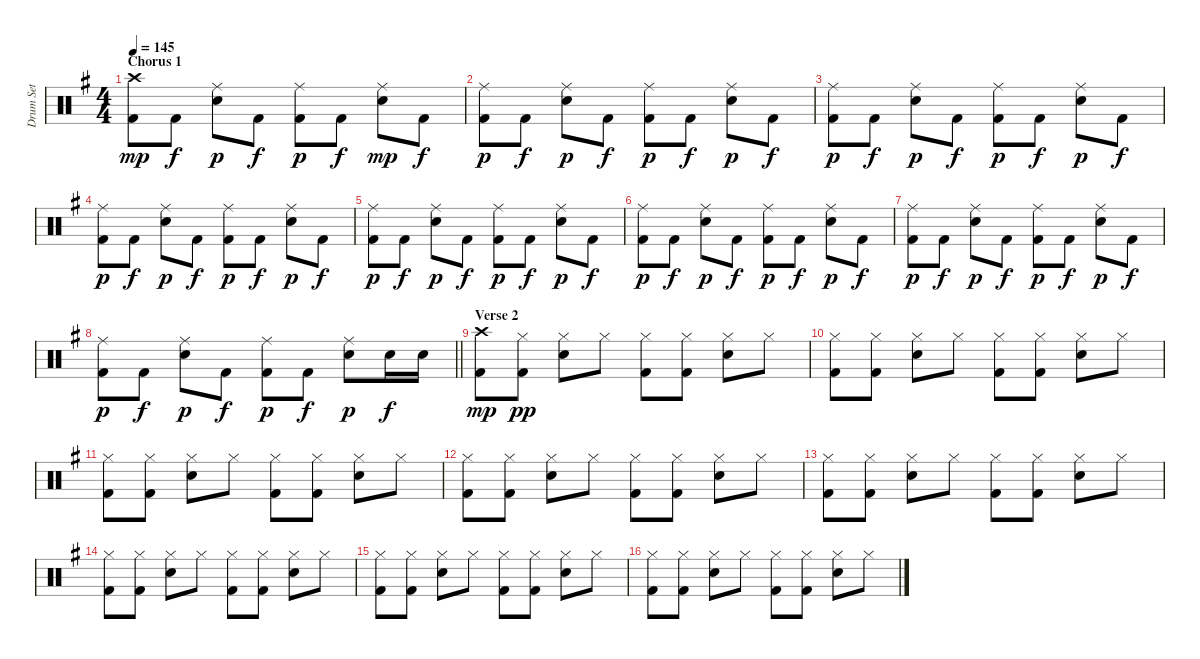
\track ("Drum Set" "Drum Set") {instrument percussion}
\staff {score}
\articulation defaults
\ts (4 4)
\section ("" "Chorus 1")
\tempo 145
\clef neutral
\ks g
("Crash high (hit)" "Kick (hit) 2").8{dy mp} "Kick (hit) 2".8{dy f} ("Electric Snare (hit)" "Ride (middle)").8{dy p} "Kick (hit) 2".8{dy f} ("Kick (hit) 2" "Ride (middle)").8{dy p} "Kick (hit) 2".8{dy f} ("Electric Snare (hit)" "Ride (middle)").8{dy mp} "Kick (hit) 2".8{dy f} |
("Kick (hit) 2" "Ride (middle)").8{dy p} "Kick (hit) 2".8{dy f} ("Electric Snare (hit)" "Ride (middle)").8{dy p} "Kick (hit) 2".8{dy f} ("Kick (hit) 2" "Ride (middle)").8{dy p} "Kick (hit) 2".8{dy f} ("Electric Snare (hit)" "Ride (middle)").8{dy p} "Kick (hit) 2".8{dy f} |
("Kick (hit) 2" "Ride (middle)").8{dy p} "Kick (hit) 2".8{dy f} ("Electric Snare (hit)" "Ride (middle)").8{dy p} "Kick (hit) 2".8{dy f} ("Kick (hit) 2" "Ride (middle)").8{dy p} "Kick (hit) 2".8{dy f} ("Electric Snare (hit)" "Ride (middle)").8{dy p} "Kick (hit) 2".8{dy f} |
("Kick (hit) 2" "Ride (middle)").8{dy p} "Kick (hit) 2".8{dy f} ("Electric Snare (hit)" "Ride (middle)").8{dy p} "Kick (hit) 2".8{dy f} ("Kick (hit) 2" "Ride (middle)").8{dy p} "Kick (hit) 2".8{dy f} ("Electric Snare (hit)" "Ride (middle)").8{dy p} "Kick (hit) 2".8{dy f} |
("Kick (hit) 2" "Ride (middle)").8{dy p} "Kick (hit) 2".8{dy f} ("Electric Snare (hit)" "Ride (middle)").8{dy p} "Kick (hit) 2".8{dy f} ("Kick (hit) 2" "Ride (middle)").8{dy p} "Kick (hit) 2".8{dy f} ("Electric Snare (hit)" "Ride (middle)").8{dy p} "Kick (hit) 2".8{dy f} |
("Kick (hit) 2" "Ride (middle)").8{dy p} "Kick (hit) 2".8{dy f} ("Electric Snare (hit)" "Ride (middle)").8{dy p} "Kick (hit) 2".8{dy f} ("Kick (hit) 2" "Ride (middle)").8{dy p} "Kick (hit) 2".8{dy f} ("Electric Snare (hit)" "Ride (middle)").8{dy p} "Kick (hit) 2".8{dy f} |
("Kick (hit) 2" "Ride (middle)").8{dy p} "Kick (hit) 2".8{dy f} ("Electric Snare (hit)" "Ride (middle)").8{dy p} "Kick (hit) 2".8{dy f} ("Kick (hit) 2" "Ride (middle)").8{dy p} "Kick (hit) 2".8{dy f} ("Electric Snare (hit)" "Ride (middle)").8{dy p} "Kick (hit) 2".8{dy f} |
\barLineRight lightlight
("Kick (hit) 2" "Ride (middle)").8{dy p} "Kick (hit) 2".8{dy f} ("Electric Snare (hit)" "Ride (middle)").8{dy p} "Kick (hit) 2".8{dy f} ("Kick (hit) 2" "Ride (middle)").8{dy p} "Kick (hit) 2".8{dy f} ("Electric Snare (hit)" "Ride (middle)").8{dy p} "Electric Snare (hit)".16{dy f} "Electric Snare (hit)".16 |
\section ("" "Verse 2")
("Crash high (hit)" "Kick (hit) 2").8{dy mp} ("Hi-Hat (closed)" "Kick (hit) 2").8{dy pp} ("Hi-Hat (closed)" "Electric Snare (hit)").8 "Hi-Hat (closed)".8 ("Hi-Hat (closed)" "Kick (hit) 2").8 ("Hi-Hat (closed)" "Kick (hit) 2").8 ("Hi-Hat (closed)" "Electric Snare (hit)").8 "Hi-Hat (closed)".8 |
("Hi-Hat (closed)" "Kick (hit) 2").8 ("Hi-Hat (closed)" "Kick (hit) 2").8 ("Hi-Hat (closed)" "Electric Snare (hit)").8 "Hi-Hat (closed)".8 ("Hi-Hat (closed)" "Kick (hit) 2").8 ("Hi-Hat (closed)" "Kick (hit) 2").8 ("Hi-Hat (closed)" "Electric Snare (hit)").8 "Hi-Hat (closed)".8 |
("Hi-Hat (closed)" "Kick (hit) 2").8 ("Hi-Hat (closed)" "Kick (hit) 2").8 ("Hi-Hat (closed)" "Electric Snare (hit)").8 "Hi-Hat (closed)".8 ("Hi-Hat (closed)" "Kick (hit) 2").8 ("Hi-Hat (closed)" "Kick (hit) 2").8 ("Hi-Hat (closed)" "Electric Snare (hit)").8 "Hi-Hat (closed)".8 |
("Hi-Hat (closed)" "Kick (hit) 2").8 ("Hi-Hat (closed)" "Kick (hit) 2").8 ("Hi-Hat (closed)" "Electric Snare (hit)").8 "Hi-Hat (closed)".8 ("Hi-Hat (closed)" "Kick (hit) 2").8 ("Hi-Hat (closed)" "Kick (hit) 2").8 ("Hi-Hat (closed)" "Electric Snare (hit)").8 "Hi-Hat (closed)".8 |
("Hi-Hat (closed)" "Kick (hit) 2").8 ("Hi-Hat (closed)" "Kick (hit) 2").8 ("Hi-Hat (closed)" "Electric Snare (hit)").8 "Hi-Hat (closed)".8 ("Hi-Hat (closed)" "Kick (hit) 2").8 ("Hi-Hat (closed)" "Kick (hit) 2").8 ("Hi-Hat (closed)" "Electric Snare (hit)").8 "Hi-Hat (closed)".8 |
("Hi-Hat (closed)" "Kick (hit) 2").8 ("Hi-Hat (closed)" "Kick (hit) 2").8 ("Hi-Hat (closed)" "Electric Snare (hit)").8 "Hi-Hat (closed)".8 ("Hi-Hat (closed)" "Kick (hit) 2").8 ("Hi-Hat (closed)" "Kick (hit) 2").8 ("Hi-Hat (closed)" "Electric Snare (hit)").8 "Hi-Hat (closed)".8 |
("Hi-Hat (closed)" "Kick (hit) 2").8 ("Hi-Hat (closed)" "Kick (hit) 2").8 ("Hi-Hat (closed)" "Electric Snare (hit)").8 "Hi-Hat (closed)".8 ("Hi-Hat (closed)" "Kick (hit) 2").8 ("Hi-Hat (closed)" "Kick (hit) 2").8 ("Hi-Hat (closed)" "Electric Snare (hit)").8 "Hi-Hat (closed)".8 |
("Hi-Hat (closed)" "Kick (hit) 2").8 ("Hi-Hat (closed)" "Kick (hit) 2").8 ("Hi-Hat (closed)" "Electric Snare (hit)").8 "Hi-Hat (closed)".8 ("Hi-Hat (closed)" "Kick (hit) 2").8 ("Hi-Hat (closed)" "Kick (hit) 2").8 ("Hi-Hat (closed)" "Electric Snare (hit)").8 "Hi-Hat (closed)".8
